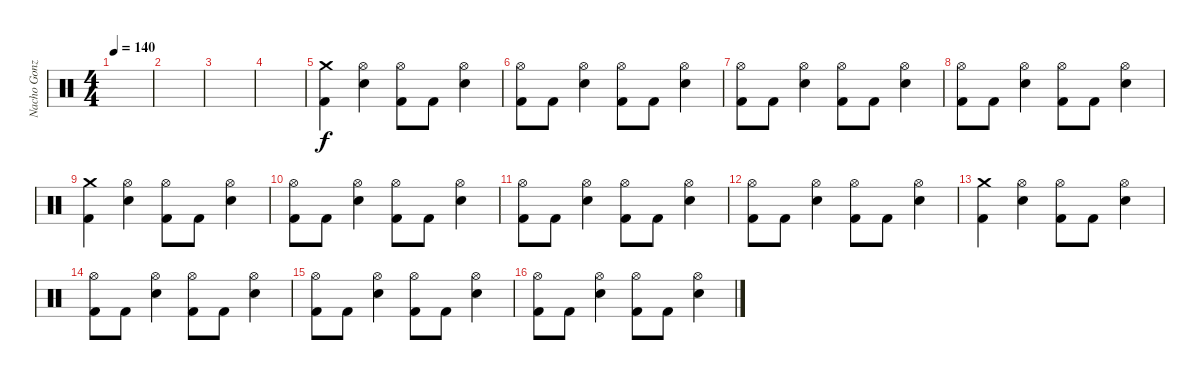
\track ("Nacho Gonzalez" "Nacho Gonz") {instrument percussion}
\staff {score}
\articulation defaults
\ts (4 4)
\tempo 140
\clef neutral
\ks c
|
|
|
|
("Crash medium (hit)" "Kick (hit) 2").4 ("Hi-Hat (open)" "Electric Snare (hit)").4 ("Hi-Hat (open)" "Kick (hit) 2").8 "Kick (hit) 2".8 ("Hi-Hat (open)" "Electric Snare (hit)").4 |
("Hi-Hat (open)" "Kick (hit) 2").8 "Kick (hit) 2".8 ("Hi-Hat (open)" "Electric Snare (hit)").4 ("Hi-Hat (open)" "Kick (hit) 2").8 "Kick (hit) 2".8 ("Hi-Hat (open)" "Electric Snare (hit)").4 |
("Hi-Hat (open)" "Kick (hit) 2").8 "Kick (hit) 2".8 ("Hi-Hat (open)" "Electric Snare (hit)").4 ("Hi-Hat (open)" "Kick (hit) 2").8 "Kick (hit) 2".8 ("Hi-Hat (open)" "Electric Snare (hit)").4 |
("Hi-Hat (open)" "Kick (hit) 2").8 "Kick (hit) 2".8 ("Hi-Hat (open)" "Electric Snare (hit)").4 ("Hi-Hat (open)" "Kick (hit) 2").8 "Kick (hit) 2".8 ("Hi-Hat (open)" "Electric Snare (hit)").4 |
("Crash medium (hit)" "Kick (hit) 2").4 ("Hi-Hat (open)" "Electric Snare (hit)").4 ("Hi-Hat (open)" "Kick (hit) 2").8 "Kick (hit) 2".8 ("Hi-Hat (open)" "Electric Snare (hit)").4 |
("Hi-Hat (open)" "Kick (hit) 2").8 "Kick (hit) 2".8 ("Hi-Hat (open)" "Electric Snare (hit)").4 ("Hi-Hat (open)" "Kick (hit) 2").8 "Kick (hit) 2".8 ("Hi-Hat (open)" "Electric Snare (hit)").4 |
("Hi-Hat (open)" "Kick (hit) 2").8 "Kick (hit) 2".8 ("Hi-Hat (open)" "Electric Snare (hit)").4 ("Hi-Hat (open)" "Kick (hit) 2").8 "Kick (hit) 2".8 ("Hi-Hat (open)" "Electric Snare (hit)").4 |
("Hi-Hat (open)" "Kick (hit) 2").8 "Kick (hit) 2".8 ("Hi-Hat (open)" "Electric Snare (hit)").4 ("Hi-Hat (open)" "Kick (hit) 2").8 "Kick (hit) 2".8 ("Hi-Hat (open)" "Electric Snare (hit)").4 |
("Crash medium (hit)" "Kick (hit) 2").4 ("Hi-Hat (open)" "Electric Snare (hit)").4 ("Hi-Hat (open)" "Kick (hit) 2").8 "Kick (hit) 2".8 ("Hi-Hat (open)" "Electric Snare (hit)").4 |
("Hi-Hat (open)" "Kick (hit) 2").8 "Kick (hit) 2".8 ("Hi-Hat (open)" "Electric Snare (hit)").4 ("Hi-Hat (open)" "Kick (hit) 2").8 "Kick (hit) 2".8 ("Hi-Hat (open)" "Electric Snare (hit)").4 |
("Hi-Hat (open)" "Kick (hit) 2").8 "Kick (hit) 2".8 ("Hi-Hat (open)" "Electric Snare (hit)").4 ("Hi-Hat (open)" "Kick (hit) 2").8 "Kick (hit) 2".8 ("Hi-Hat (open)" "Electric Snare (hit)").4 |
("Hi-Hat (open)" "Kick (hit) 2").8 "Kick (hit) 2".8 ("Hi-Hat (open)" "Electric Snare (hit)").4 ("Hi-Hat (open)" "Kick (hit) 2").8 "Kick (hit) 2".8 ("Hi-Hat (open)" "Electric Snare (hit)").4
